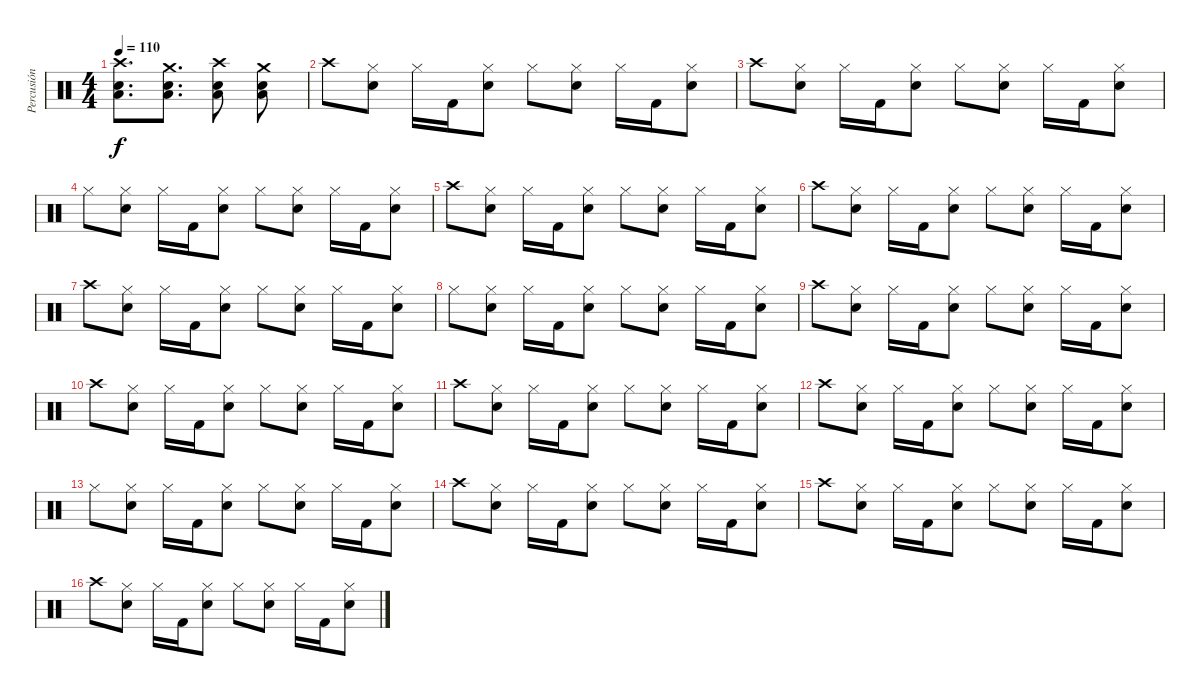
\track ("Percusión" "Percusión") {instrument percussion}
\staff {score}
\articulation defaults
\ts (4 4)
\tempo 110
\clef neutral
\ks c
("Snare (hit) 2" "Low Floor Tom (hit)" "Crash high (hit)").8{d dy f} ("Snare (hit) 2" "Low Floor Tom (hit)" "Crash medium (hit)").8{d} ("Snare (hit) 2" "Low Floor Tom (hit)" "Crash high (hit)").8 ("Snare (hit) 2" "Low Floor Tom (hit)" "Crash medium (hit)").8 |
"Crash high (hit)".8 ("Hi-Hat (closed)" "Snare (hit) 2").8 "Hi-Hat (closed)".16 "Kick (hit) 2".16 ("Hi-Hat (closed)" "Snare (hit) 2").8 "Hi-Hat (closed)".8 ("Hi-Hat (closed)" "Snare (hit) 2").8 "Hi-Hat (closed)".16 "Kick (hit) 2".16 ("Hi-Hat (closed)" "Snare (hit) 2").8 |
"Crash high (hit)".8 ("Hi-Hat (closed)" "Snare (hit) 2").8 "Hi-Hat (closed)".16 "Kick (hit) 2".16 ("Hi-Hat (closed)" "Snare (hit) 2").8 "Hi-Hat (closed)".8 ("Hi-Hat (closed)" "Snare (hit) 2").8 "Hi-Hat (closed)".16 "Kick (hit) 2".16 ("Hi-Hat (closed)" "Snare (hit) 2").8 |
"Hi-Hat (closed)".8 ("Hi-Hat (closed)" "Snare (hit) 2").8 "Hi-Hat (closed)".16 "Kick (hit) 2".16 ("Hi-Hat (closed)" "Snare (hit) 2").8 "Hi-Hat (closed)".8 ("Hi-Hat (closed)" "Snare (hit) 2").8 "Hi-Hat (closed)".16 "Kick (hit) 2".16 ("Hi-Hat (closed)" "Snare (hit) 2").8 |
"Crash high (hit)".8 ("Hi-Hat (closed)" "Snare (hit) 2").8 "Hi-Hat (closed)".16 "Kick (hit) 2".16 ("Hi-Hat (closed)" "Snare (hit) 2").8 "Hi-Hat (closed)".8 ("Hi-Hat (closed)" "Snare (hit) 2").8 "Hi-Hat (closed)".16 "Kick (hit) 2".16 ("Hi-Hat (closed)" "Snare (hit) 2").8 |
"Crash high (hit)".8 ("Hi-Hat (closed)" "Snare (hit) 2").8 "Hi-Hat (closed)".16 "Kick (hit) 2".16 ("Hi-Hat (closed)" "Snare (hit) 2").8 "Hi-Hat (closed)".8 ("Hi-Hat (closed)" "Snare (hit) 2").8 "Hi-Hat (closed)".16 "Kick (hit) 2".16 ("Hi-Hat (closed)" "Snare (hit) 2").8 |
"Crash high (hit)".8 ("Hi-Hat (closed)" "Snare (hit) 2").8 "Hi-Hat (closed)".16 "Kick (hit) 2".16 ("Hi-Hat (closed)" "Snare (hit) 2").8 "Hi-Hat (closed)".8 ("Hi-Hat (closed)" "Snare (hit) 2").8 "Hi-Hat (closed)".16 "Kick (hit) 2".16 ("Hi-Hat (closed)" "Snare (hit) 2").8 |
"Hi-Hat (closed)".8 ("Hi-Hat (closed)" "Snare (hit) 2").8 "Hi-Hat (closed)".16 "Kick (hit) 2".16 ("Hi-Hat (closed)" "Snare (hit) 2").8 "Hi-Hat (closed)".8 ("Hi-Hat (closed)" "Snare (hit) 2").8 "Hi-Hat (closed)".16 "Kick (hit) 2".16 ("Hi-Hat (closed)" "Snare (hit) 2").8 |
"Crash high (hit)".8 ("Hi-Hat (closed)" "Snare (hit) 2").8 "Hi-Hat (closed)".16 "Kick (hit) 2".16 ("Hi-Hat (closed)" "Snare (hit) 2").8 "Hi-Hat (closed)".8 ("Hi-Hat (closed)" "Snare (hit) 2").8 "Hi-Hat (closed)".16 "Kick (hit) 2".16 ("Hi-Hat (closed)" "Snare (hit) 2").8 |
"Crash high (hit)".8 ("Hi-Hat (closed)" "Snare (hit) 2").8 "Hi-Hat (closed)".16 "Kick (hit) 2".16 ("Hi-Hat (closed)" "Snare (hit) 2").8 "Hi-Hat (closed)".8 ("Hi-Hat (closed)" "Snare (hit) 2").8 "Hi-Hat (closed)".16 "Kick (hit) 2".16 ("Hi-Hat (closed)" "Snare (hit) 2").8 |
"Crash high (hit)".8 ("Hi-Hat (closed)" "Snare (hit) 2").8 "Hi-Hat (closed)".16 "Kick (hit) 2".16 ("Hi-Hat (closed)" "Snare (hit) 2").8 "Hi-Hat (closed)".8 ("Hi-Hat (closed)" "Snare (hit) 2").8 "Hi-Hat (closed)".16 "Kick (hit) 2".16 ("Hi-Hat (closed)" "Snare (hit) 2").8 |
"Crash high (hit)".8 ("Hi-Hat (closed)" "Snare (hit) 2").8 "Hi-Hat (closed)".16 "Kick (hit) 2".16 ("Hi-Hat (closed)" "Snare (hit) 2").8 "Hi-Hat (closed)".8 ("Hi-Hat (closed)" "Snare (hit) 2").8 "Hi-Hat (closed)".16 "Kick (hit) 2".16 ("Hi-Hat (closed)" "Snare (hit) 2").8 |
"Hi-Hat (closed)".8 ("Hi-Hat (closed)" "Snare (hit) 2").8 "Hi-Hat (closed)".16 "Kick (hit) 2".16 ("Hi-Hat (closed)" "Snare (hit) 2").8 "Hi-Hat (closed)".8 ("Hi-Hat (closed)" "Snare (hit) 2").8 "Hi-Hat (closed)".16 "Kick (hit) 2".16 ("Hi-Hat (closed)" "Snare (hit) 2").8 |
"Crash high (hit)".8 ("Hi-Hat (closed)" "Snare (hit) 2").8 "Hi-Hat (closed)".16 "Kick (hit) 2".16 ("Hi-Hat (closed)" "Snare (hit) 2").8 "Hi-Hat (closed)".8 ("Hi-Hat (closed)" "Snare (hit) 2").8 "Hi-Hat (closed)".16 "Kick (hit) 2".16 ("Hi-Hat (closed)" "Snare (hit) 2").8 |
"Crash high (hit)".8 ("Hi-Hat (closed)" "Snare (hit) 2").8 "Hi-Hat (closed)".16 "Kick (hit) 2".16 ("Hi-Hat (closed)" "Snare (hit) 2").8 "Hi-Hat (closed)".8 ("Hi-Hat (closed)" "Snare (hit) 2").8 "Hi-Hat (closed)".16 "Kick (hit) 2".16 ("Hi-Hat (closed)" "Snare (hit) 2").8 |
"Crash high (hit)".8 ("Hi-Hat (closed)" "Snare (hit) 2").8 "Hi-Hat (closed)".16 "Kick (hit) 2".16 ("Hi-Hat (closed)" "Snare (hit) 2").8 "Hi-Hat (closed)".8 ("Hi-Hat (closed)" "Snare (hit) 2").8 "Hi-Hat (closed)".16 "Kick (hit) 2".16 ("Hi-Hat (closed)" "Snare (hit) 2").8
